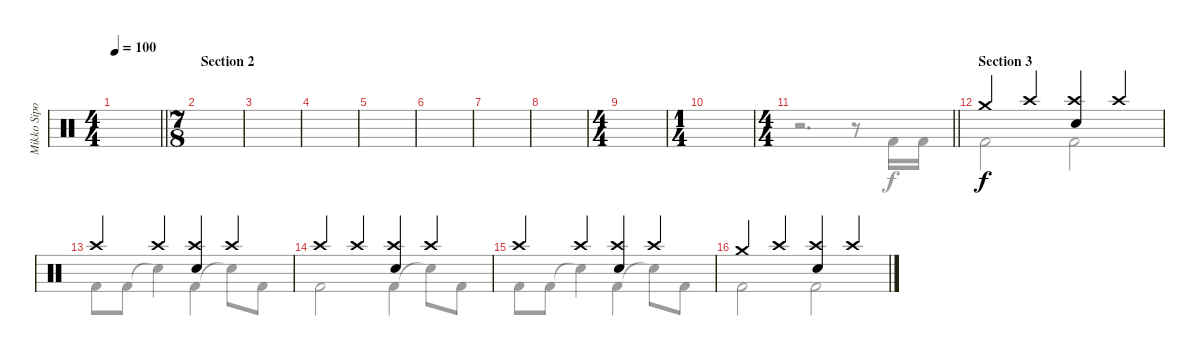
\track ("Mikko Sipola (drums)" "Mikko Sipo") {instrument percussion}
\staff {score}
\articulation defaults
\voice
\ts (4 4)
\tempo 100
\clef neutral
\barLineRight lightlight
\ks aminor
|
\ts (7 8)
\section ("" "Section 2")
|
|
|
|
|
|
|
\ts (4 4)
|
\ts (1 4)
|
\ts (4 4)
\barLineRight lightlight
|
\section ("" "Section 3")
"Crash medium (hit)".4 "Crash high (hit)".4 ("Crash high (hit)" "Snare (hit) 2").4 "Crash high (hit)".4 |
"Crash high (hit)".4 "Crash high (hit)".4 ("Crash high (hit)" "Snare (hit) 2").4 "Crash high (hit)".4 |
"Crash high (hit)".4 "Crash high (hit)".4 ("Crash high (hit)" "Snare (hit) 2").4 "Crash high (hit)".4 |
"Crash high (hit)".4 "Crash high (hit)".4 ("Crash high (hit)" "Snare (hit) 2").4 "Crash high (hit)".4 |
"Crash medium (hit)".4 "Crash high (hit)".4 ("Crash high (hit)" "Snare (hit) 2").4 "Crash high (hit)".4
\voice
\clef neutral
\ottava regular
\simile none
\barLineRight lightlight
\ks aminor
|
|
|
|
|
|
|
|
|
|
\barLineRight lightlight
r.2{d} r.8 "Kick (hit) 2".16 "Kick (hit) 2".16 |
"Kick (hit) 2".2 "Kick (hit) 2".2 |
"Kick (hit) 2".8 "Kick (hit) 2".8 "Snare (hit)"{t}.4 "Kick (hit) 2".4 "Snare (hit)"{t}.8 "Kick (hit) 2".8 |
"Kick (hit) 2".2 "Kick (hit) 2".4 "Snare (hit)"{t}.8 "Kick (hit) 2".8 |
"Kick (hit) 2".8 "Kick (hit) 2".8 "Snare (hit)"{t}.4 "Kick (hit) 2".4 "Snare (hit)"{t}.8 "Kick (hit) 2".8 |
"Kick (hit) 2".2 "Kick (hit) 2".2
